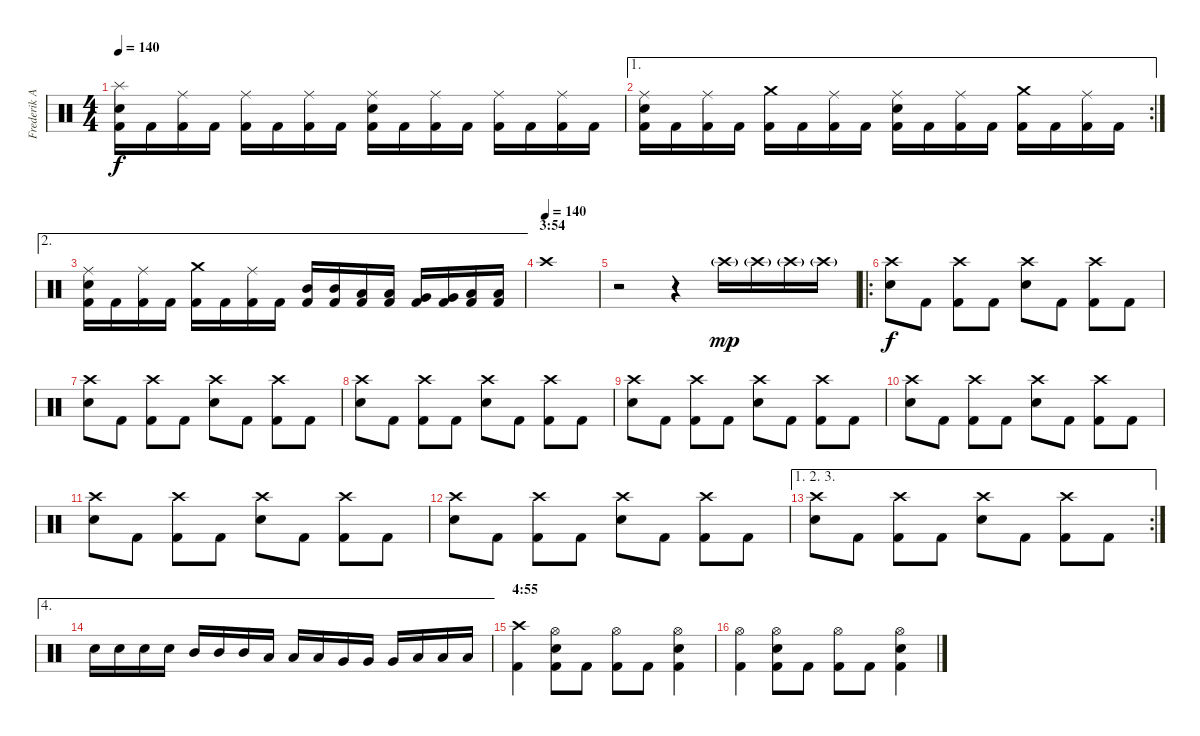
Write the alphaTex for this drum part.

\track ("Frederik Anderson" "Frederik A") {instrument percussion}
\staff {score}
\articulation defaults
\ts (4 4)
\tempo 140
\clef neutral
\ks c
("Splash (hit)" "Electric Snare (hit)" "Kick (hit) 2").16{dy f} "Kick (hit) 2".16 ("Ride (middle)" "Kick (hit) 2").16 "Kick (hit) 2".16 ("Ride (middle)" "Kick (hit) 2").16 "Kick (hit) 2".16 ("Ride (middle)" "Kick (hit) 2").16 "Kick (hit) 2".16 ("Ride (middle)" "Electric Snare (hit)" "Kick (hit) 2").16 "Kick (hit) 2".16 ("Ride (middle)" "Kick (hit) 2").16 "Kick (hit) 2".16 ("Ride (middle)" "Kick (hit) 2").16 "Kick (hit) 2".16 ("Ride (middle)" "Kick (hit) 2").16 "Kick (hit) 2".16 |
\ae 1
\rc 2
("Ride (middle)" "Electric Snare (hit)" "Kick (hit) 2").16 "Kick (hit) 2".16 ("Ride (middle)" "Kick (hit) 2").16 "Kick (hit) 2".16 ("Crash medium (hit)" "Kick (hit) 2").16 "Kick (hit) 2".16 ("Ride (middle)" "Kick (hit) 2").16 "Kick (hit) 2".16 ("Ride (middle)" "Electric Snare (hit)" "Kick (hit) 2").16 "Kick (hit) 2".16 ("Ride (middle)" "Kick (hit) 2").16 "Kick (hit) 2".16 ("Crash medium (hit)" "Kick (hit) 2").16 "Kick (hit) 2".16 ("Ride (middle)" "Kick (hit) 2").16 "Kick (hit) 2".16 |
\ae 2
("Ride (middle)" "Electric Snare (hit)" "Kick (hit) 2").16 "Kick (hit) 2".16 ("Ride (middle)" "Kick (hit) 2").16 "Kick (hit) 2".16 ("Crash medium (hit)" "Kick (hit) 2").16 "Kick (hit) 2".16 ("Ride (middle)" "Kick (hit) 2").16 "Kick (hit) 2".16 ("Mid Tom (hit)" "Kick (hit) 2").16 ("Mid Tom (hit)" "Kick (hit) 2").16 ("Low Tom (hit)" "Kick (hit) 2").16 ("Low Tom (hit)" "Kick (hit) 2").16 ("Very Low Tom (hit)" "Kick (hit) 2").16 ("Very Low Tom (hit)" "Kick (hit) 2").16 ("Low Floor Tom (hit)" "Kick (hit) 2").16 ("Low Floor Tom (hit)" "Kick (hit) 2").16 |
\section ("" "3:54")
\tempo (140)
"Crash high (hit)".1 |
r.2 r.4 "Crash high (hit)"{g}.16{dy mp} "Crash high (hit)"{g}.16 "Crash high (hit)"{g}.16 "Crash high (hit)"{g}.16 |
\ro
("Crash high (hit)" "Electric Snare (hit)").8{dy f} "Kick (hit) 2".8 ("Crash high (hit)" "Kick (hit) 2").8 "Kick (hit) 2".8 ("Crash high (hit)" "Electric Snare (hit)").8 "Kick (hit) 2".8 ("Crash high (hit)" "Kick (hit) 2").8 "Kick (hit) 2".8 |
("Crash high (hit)" "Electric Snare (hit)").8 "Kick (hit) 2".8 ("Crash high (hit)" "Kick (hit) 2").8 "Kick (hit) 2".8 ("Crash high (hit)" "Electric Snare (hit)").8 "Kick (hit) 2".8 ("Crash high (hit)" "Kick (hit) 2").8 "Kick (hit) 2".8 |
("Crash high (hit)" "Electric Snare (hit)").8 "Kick (hit) 2".8 ("Crash high (hit)" "Kick (hit) 2").8 "Kick (hit) 2".8 ("Crash high (hit)" "Electric Snare (hit)").8 "Kick (hit) 2".8 ("Crash high (hit)" "Kick (hit) 2").8 "Kick (hit) 2".8 |
("Crash high (hit)" "Electric Snare (hit)").8 "Kick (hit) 2".8 ("Crash high (hit)" "Kick (hit) 2").8 "Kick (hit) 2".8 ("Crash high (hit)" "Electric Snare (hit)").8 "Kick (hit) 2".8 ("Crash high (hit)" "Kick (hit) 2").8 "Kick (hit) 2".8 |
("Crash high (hit)" "Electric Snare (hit)").8 "Kick (hit) 2".8 ("Crash high (hit)" "Kick (hit) 2").8 "Kick (hit) 2".8 ("Crash high (hit)" "Electric Snare (hit)").8 "Kick (hit) 2".8 ("Crash high (hit)" "Kick (hit) 2").8 "Kick (hit) 2".8 |
("Crash high (hit)" "Electric Snare (hit)").8 "Kick (hit) 2".8 ("Crash high (hit)" "Kick (hit) 2").8 "Kick (hit) 2".8 ("Crash high (hit)" "Electric Snare (hit)").8 "Kick (hit) 2".8 ("Crash high (hit)" "Kick (hit) 2").8 "Kick (hit) 2".8 |
("Crash high (hit)" "Electric Snare (hit)").8 "Kick (hit) 2".8 ("Crash high (hit)" "Kick (hit) 2").8 "Kick (hit) 2".8 ("Crash high (hit)" "Electric Snare (hit)").8 "Kick (hit) 2".8 ("Crash high (hit)" "Kick (hit) 2").8 "Kick (hit) 2".8 |
\ae (1 2 3)
\rc 2
("Crash high (hit)" "Electric Snare (hit)").8 "Kick (hit) 2".8 ("Crash high (hit)" "Kick (hit) 2").8 "Kick (hit) 2".8 ("Crash high (hit)" "Electric Snare (hit)").8 "Kick (hit) 2".8 ("Crash high (hit)" "Kick (hit) 2").8 "Kick (hit) 2".8 |
\ae 4 "Electric Snare (hit)".16 "Electric Snare (hit)".16 "Electric Snare (hit)".16 "Electric Snare (hit)".16 "Mid Tom (hit)".16 "Mid Tom (hit)".16 "Mid Tom (hit)".16 "Low Tom (hit)".16 "Low Tom (hit)".16 "Low Tom (hit)".16 "Very Low Tom (hit)".16 "Very Low Tom (hit)".16 "Very Low Tom (hit)".16 "Low Floor Tom (hit)".16 "Low Floor Tom (hit)".16 "Low Floor Tom (hit)".16
|
\section ("" "4:55")
("Crash high (hit)" "Kick (hit) 2").4 ("Hi-Hat (open)" "Electric Snare (hit)" "Kick (hit) 2").8 "Kick (hit) 2".8 ("Hi-Hat (open)" "Kick (hit) 2").8 "Kick (hit) 2".8 ("Hi-Hat (open)" "Electric Snare (hit)" "Kick (hit) 2").4 |
("Hi-Hat (open)" "Kick (hit) 2").4 ("Hi-Hat (open)" "Electric Snare (hit)" "Kick (hit) 2").8 "Kick (hit) 2".8 ("Hi-Hat (open)" "Kick (hit) 2").8 "Kick (hit) 2".8 ("Hi-Hat (open)" "Electric Snare (hit)" "Kick (hit) 2").4
